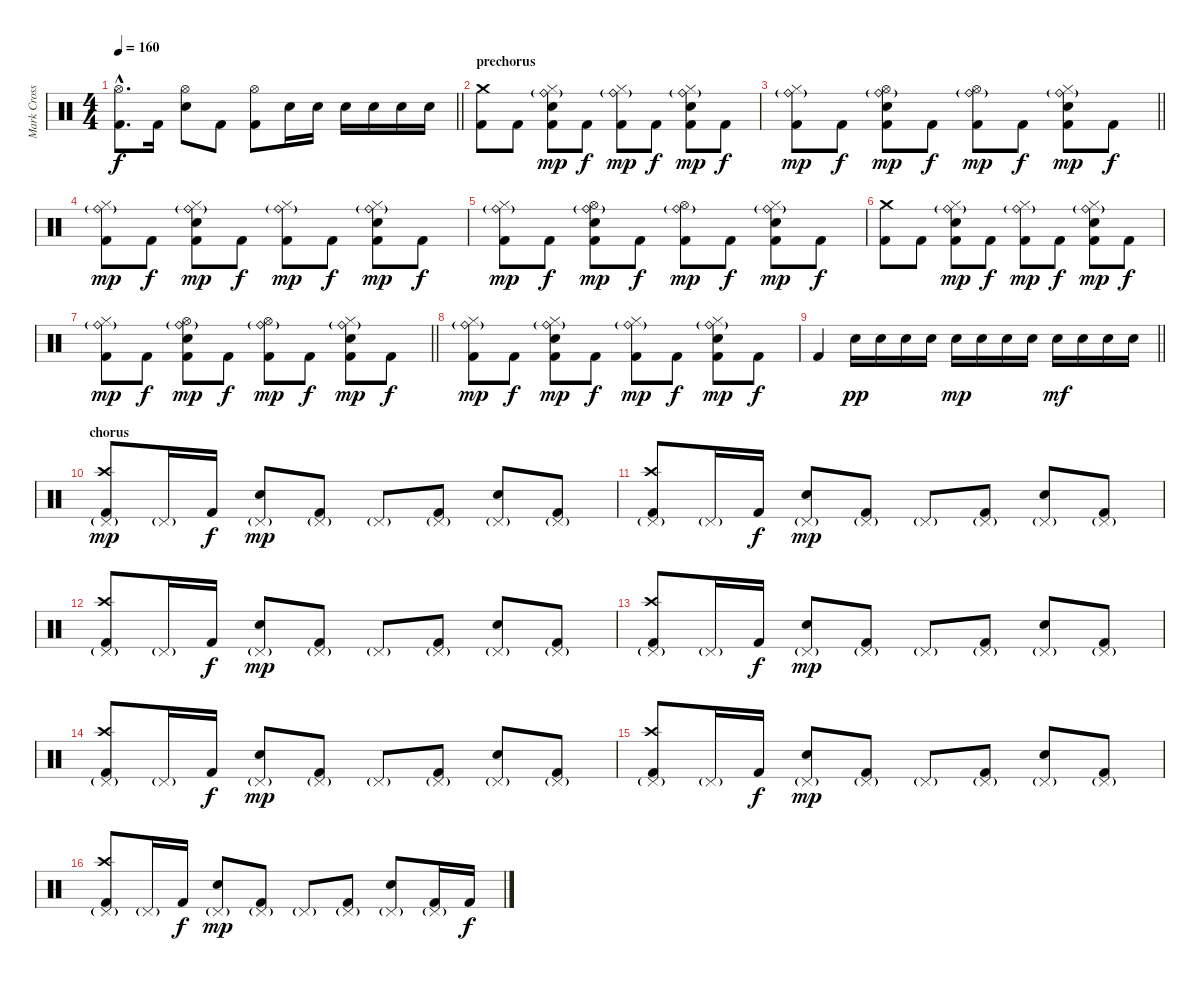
\track ("Mark Cross" "Mark Cross") {instrument percussion}
\staff {score}
\articulation defaults
\ts (4 4)
\tempo 160
\clef neutral
\barLineRight lightlight
\ks aminor
("Hi-Hat (open)"{hac} "Kick (hit) 2"{hac}).8{d dy f} "Kick (hit) 2".16 ("Hi-Hat (open)" "Electric Snare (hit)").8 "Kick (hit) 2".8 ("Hi-Hat (open)" "Kick (hit) 2").8 "Electric Snare (hit)".16 "Electric Snare (hit)".16 "Electric Snare (hit)".16 "Electric Snare (hit)".16 "Electric Snare (hit)".16 "Electric Snare (hit)".16 |
\section ("" "prechorus")
("Crash medium (hit)" "Kick (hit) 2").8 "Kick (hit) 2".8 ("Ride (bell)"{g} "Hi-Hat (closed)" "Electric Snare (hit)" "Kick (hit) 2").8{dy mp} "Kick (hit) 2".8{dy f} ("Ride (bell)"{g} "Hi-Hat (closed)" "Kick (hit) 2").8{dy mp} "Kick (hit) 2".8{dy f} ("Ride (bell)"{g} "Hi-Hat (closed)" "Electric Snare (hit)" "Kick (hit) 2").8{dy mp} "Kick (hit) 2".8{dy f} |
\barLineRight lightlight
("Ride (bell)"{g} "Hi-Hat (closed)" "Kick (hit) 2").8{dy mp} "Kick (hit) 2".8{dy f} ("Hi-Hat (open)" "Ride (bell)"{g} "Electric Snare (hit)" "Kick (hit) 2").8{dy mp} "Kick (hit) 2".8{dy f} ("Hi-Hat (open)" "Ride (bell)"{g} "Kick (hit) 2").8{dy mp} "Kick (hit) 2".8{dy f} ("Ride (bell)"{g} "Hi-Hat (closed)" "Electric Snare (hit)" "Kick (hit) 2").8{dy mp} "Kick (hit) 2".8{dy f} |
("Ride (bell)"{g} "Hi-Hat (closed)" "Kick (hit) 2").8{dy mp} "Kick (hit) 2".8{dy f} ("Ride (bell)"{g} "Hi-Hat (closed)" "Electric Snare (hit)" "Kick (hit) 2").8{dy mp} "Kick (hit) 2".8{dy f} ("Ride (bell)"{g} "Hi-Hat (closed)" "Kick (hit) 2").8{dy mp} "Kick (hit) 2".8{dy f} ("Ride (bell)"{g} "Hi-Hat (closed)" "Electric Snare (hit)" "Kick (hit) 2").8{dy mp} "Kick (hit) 2".8{dy f} |
("Ride (bell)"{g} "Hi-Hat (closed)" "Kick (hit) 2").8{dy mp} "Kick (hit) 2".8{dy f} ("Hi-Hat (open)" "Ride (bell)"{g} "Electric Snare (hit)" "Kick (hit) 2").8{dy mp} "Kick (hit) 2".8{dy f} ("Hi-Hat (open)" "Ride (bell)"{g} "Kick (hit) 2").8{dy mp} "Kick (hit) 2".8{dy f} ("Ride (bell)"{g} "Hi-Hat (closed)" "Electric Snare (hit)" "Kick (hit) 2").8{dy mp} "Kick (hit) 2".8{dy f} |
("Crash medium (hit)" "Kick (hit) 2").8 "Kick (hit) 2".8 ("Ride (bell)"{g} "Hi-Hat (closed)" "Electric Snare (hit)" "Kick (hit) 2").8{dy mp} "Kick (hit) 2".8{dy f} ("Ride (bell)"{g} "Hi-Hat (closed)" "Kick (hit) 2").8{dy mp} "Kick (hit) 2".8{dy f} ("Ride (bell)"{g} "Hi-Hat (closed)" "Electric Snare (hit)" "Kick (hit) 2").8{dy mp} "Kick (hit) 2".8{dy f} |
\barLineRight lightlight
("Ride (bell)"{g} "Hi-Hat (closed)" "Kick (hit) 2").8{dy mp} "Kick (hit) 2".8{dy f} ("Hi-Hat (open)" "Ride (bell)"{g} "Electric Snare (hit)" "Kick (hit) 2").8{dy mp} "Kick (hit) 2".8{dy f} ("Hi-Hat (open)" "Ride (bell)"{g} "Kick (hit) 2").8{dy mp} "Kick (hit) 2".8{dy f} ("Ride (bell)"{g} "Hi-Hat (closed)" "Electric Snare (hit)" "Kick (hit) 2").8{dy mp} "Kick (hit) 2".8{dy f} |
("Ride (bell)"{g} "Hi-Hat (closed)" "Kick (hit) 2").8{dy mp} "Kick (hit) 2".8{dy f} ("Ride (bell)"{g} "Hi-Hat (closed)" "Electric Snare (hit)" "Kick (hit) 2").8{dy mp} "Kick (hit) 2".8{dy f} ("Ride (bell)"{g} "Hi-Hat (closed)" "Kick (hit) 2").8{dy mp} "Kick (hit) 2".8{dy f} ("Ride (bell)"{g} "Hi-Hat (closed)" "Electric Snare (hit)" "Kick (hit) 2").8{dy mp} "Kick (hit) 2".8{dy f} |
\barLineRight lightlight "Kick (hit) 2".4 "Electric Snare (hit)".16{dy pp} "Electric Snare (hit)".16 "Electric Snare (hit)".16 "Electric Snare (hit)".16 "Electric Snare (hit)".16{dy mp} "Electric Snare (hit)".16 "Electric Snare (hit)".16 "Electric Snare (hit)".16 "Electric Snare (hit)".16{dy mf} "Electric Snare (hit)".16 "Electric Snare (hit)".16 "Electric Snare (hit)".16
|
\section ("" "chorus")
("Crash high (hit)" "Pedal Hi-Hat (hit)"{g} "Kick (hit) 2").8{dy mp} "Pedal Hi-Hat (hit)"{g}.16 "Kick (hit) 2".16{dy f} ("Pedal Hi-Hat (hit)"{g} "Electric Snare (hit)").8{dy mp} ("Pedal Hi-Hat (hit)"{g} "Kick (hit) 2").8 "Pedal Hi-Hat (hit)"{g}.8 ("Pedal Hi-Hat (hit)"{g} "Kick (hit) 2").8 ("Pedal Hi-Hat (hit)"{g} "Electric Snare (hit)").8 ("Pedal Hi-Hat (hit)"{g} "Kick (hit) 2").8 |
("Crash high (hit)" "Pedal Hi-Hat (hit)"{g} "Kick (hit) 2").8 "Pedal Hi-Hat (hit)"{g}.16 "Kick (hit) 2".16{dy f} ("Pedal Hi-Hat (hit)"{g} "Electric Snare (hit)").8{dy mp} ("Pedal Hi-Hat (hit)"{g} "Kick (hit) 2").8 "Pedal Hi-Hat (hit)"{g}.8 ("Pedal Hi-Hat (hit)"{g} "Kick (hit) 2").8 ("Pedal Hi-Hat (hit)"{g} "Electric Snare (hit)").8 ("Pedal Hi-Hat (hit)"{g} "Kick (hit) 2").8 |
("Crash high (hit)" "Pedal Hi-Hat (hit)"{g} "Kick (hit) 2").8 "Pedal Hi-Hat (hit)"{g}.16 "Kick (hit) 2".16{dy f} ("Pedal Hi-Hat (hit)"{g} "Electric Snare (hit)").8{dy mp} ("Pedal Hi-Hat (hit)"{g} "Kick (hit) 2").8 "Pedal Hi-Hat (hit)"{g}.8 ("Pedal Hi-Hat (hit)"{g} "Kick (hit) 2").8 ("Pedal Hi-Hat (hit)"{g} "Electric Snare (hit)").8 ("Pedal Hi-Hat (hit)"{g} "Kick (hit) 2").8 |
("Crash high (hit)" "Pedal Hi-Hat (hit)"{g} "Kick (hit) 2").8 "Pedal Hi-Hat (hit)"{g}.16 "Kick (hit) 2".16{dy f} ("Pedal Hi-Hat (hit)"{g} "Electric Snare (hit)").8{dy mp} ("Pedal Hi-Hat (hit)"{g} "Kick (hit) 2").8 "Pedal Hi-Hat (hit)"{g}.8 ("Pedal Hi-Hat (hit)"{g} "Kick (hit) 2").8 ("Pedal Hi-Hat (hit)"{g} "Electric Snare (hit)").8 ("Pedal Hi-Hat (hit)"{g} "Kick (hit) 2").8 |
("Crash high (hit)" "Pedal Hi-Hat (hit)"{g} "Kick (hit) 2").8 "Pedal Hi-Hat (hit)"{g}.16 "Kick (hit) 2".16{dy f} ("Pedal Hi-Hat (hit)"{g} "Electric Snare (hit)").8{dy mp} ("Pedal Hi-Hat (hit)"{g} "Kick (hit) 2").8 "Pedal Hi-Hat (hit)"{g}.8 ("Pedal Hi-Hat (hit)"{g} "Kick (hit) 2").8 ("Pedal Hi-Hat (hit)"{g} "Electric Snare (hit)").8 ("Pedal Hi-Hat (hit)"{g} "Kick (hit) 2").8 |
("Crash high (hit)" "Pedal Hi-Hat (hit)"{g} "Kick (hit) 2").8 "Pedal Hi-Hat (hit)"{g}.16 "Kick (hit) 2".16{dy f} ("Pedal Hi-Hat (hit)"{g} "Electric Snare (hit)").8{dy mp} ("Pedal Hi-Hat (hit)"{g} "Kick (hit) 2").8 "Pedal Hi-Hat (hit)"{g}.8 ("Pedal Hi-Hat (hit)"{g} "Kick (hit) 2").8 ("Pedal Hi-Hat (hit)"{g} "Electric Snare (hit)").8 ("Pedal Hi-Hat (hit)"{g} "Kick (hit) 2").8 |
("Crash high (hit)" "Pedal Hi-Hat (hit)"{g} "Kick (hit) 2").8 "Pedal Hi-Hat (hit)"{g}.16 "Kick (hit) 2".16{dy f} ("Pedal Hi-Hat (hit)"{g} "Electric Snare (hit)").8{dy mp} ("Pedal Hi-Hat (hit)"{g} "Kick (hit) 2").8 "Pedal Hi-Hat (hit)"{g}.8 ("Pedal Hi-Hat (hit)"{g} "Kick (hit) 2").8 ("Pedal Hi-Hat (hit)"{g} "Electric Snare (hit)").8 ("Pedal Hi-Hat (hit)"{g} "Kick (hit) 2").16 "Kick (hit) 2".16{dy f}
